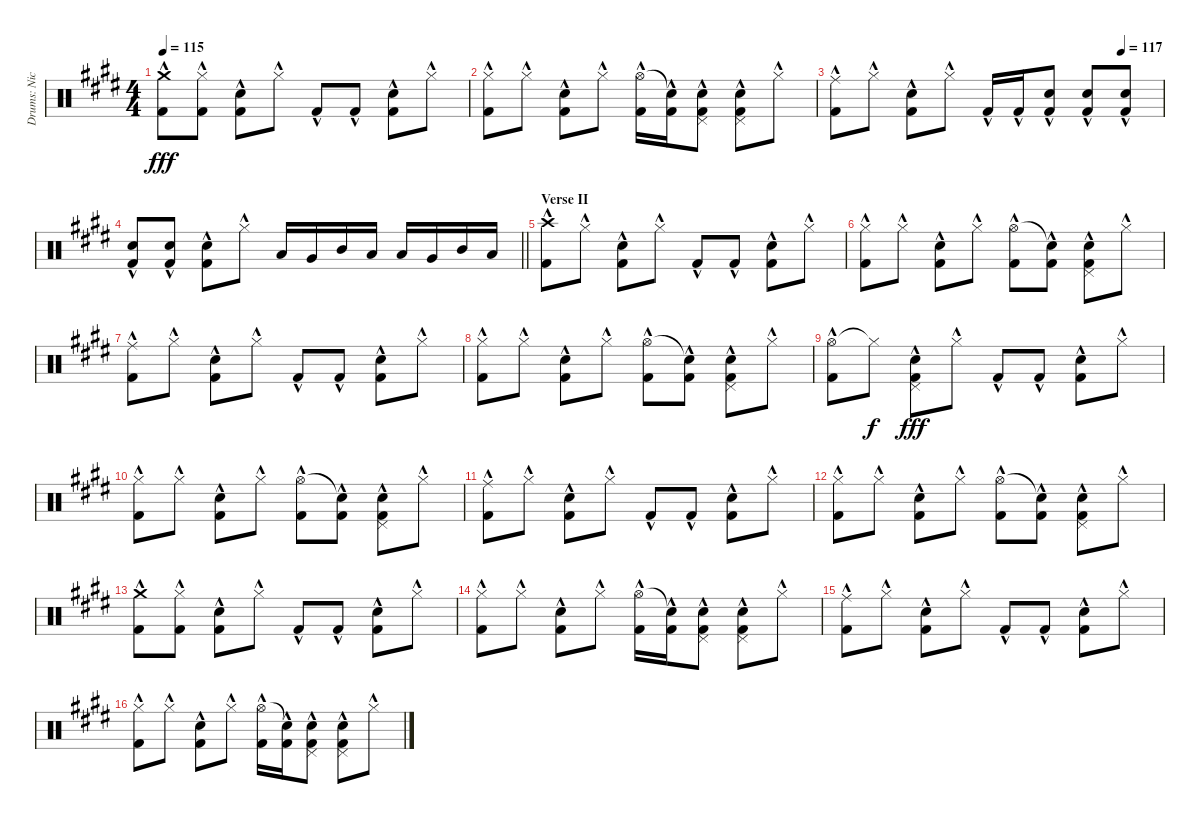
\track ("Drums: Nick" "Drums: Nic") {instrument percussion}
\staff {score}
\articulation defaults
\ts (4 4)
\tempo 115
\clef neutral
\ks e
("Crash medium (hit)"{hac} "Kick (hit) 2"{hac}).8{dy fff} ("Hi-Hat (closed)"{hac} "Kick (hit) 2").8 ("Snare (hit) 2"{hac} "Kick (hit) 2"{hac}).8 "Hi-Hat (closed)"{hac}.8 "Kick (hit) 2"{hac}.8 "Kick (hit) 2"{hac}.8 ("Snare (hit) 2"{hac} "Kick (hit) 2"{hac}).8 "Hi-Hat (closed)"{hac}.8 |
("Hi-Hat (closed)" "Kick (hit) 2"{hac}).8 "Hi-Hat (closed)"{hac}.8 ("Snare (hit) 2"{hac} "Kick (hit) 2"{hac}).8 "Hi-Hat (closed)"{hac}.8 ("Hi-Hat (open)" "Kick (hit) 2"{hac}).16 ("Snare (hit)"{t} "Kick (hit) 2"{hac}).16 ("Pedal Hi-Hat (hit)" "Snare (hit) 2"{hac} "Kick (hit) 2"{hac}).8 ("Pedal Hi-Hat (hit)" "Snare (hit) 2"{hac} "Kick (hit) 2"{hac}).8 "Hi-Hat (closed)"{hac}.8 |
\tempo (117 0.875)
("Ride (middle)" "Kick (hit) 2"{hac}).8 "Hi-Hat (closed)"{hac}.8 ("Snare (hit) 2"{hac} "Kick (hit) 2"{hac}).8 "Hi-Hat (closed)"{hac}.8 "Kick (hit) 2"{hac}.16 "Kick (hit) 2"{hac}.16 ("Snare (hit) 2"{hac} "Kick (hit) 2"{hac}).8 ("Snare (hit) 2"{hac} "Kick (hit) 2"{hac}).8 ("Snare (hit) 2"{hac} "Kick (hit) 2"{hac}).8 |
\barLineRight lightlight
("Snare (hit) 2"{hac} "Kick (hit) 2"{hac}).8 ("Snare (hit) 2"{hac} "Kick (hit) 2"{hac}).8 ("Snare (hit) 2"{hac} "Kick (hit) 2"{hac}).8 "Hi-Hat (closed)"{hac}.8 "Low Tom (hit)".16 "Very Low Tom (hit)".16 "Mid Tom (hit)".16 "Low Tom (hit)".16 "Low Tom (hit)".16 "Very Low Tom (hit)".16 "Mid Tom (hit)".16 "Low Tom (hit)".16 |
\section ("" "Verse II")
("Crash high (hit)"{hac} "Kick (hit) 2"{hac}).8 "Hi-Hat (closed)"{hac}.8 ("Snare (hit) 2"{hac} "Kick (hit) 2"{hac}).8 "Hi-Hat (closed)"{hac}.8 "Kick (hit) 2"{hac}.8 "Kick (hit) 2"{hac}.8 ("Snare (hit) 2"{hac} "Kick (hit) 2"{hac}).8 "Hi-Hat (closed)"{hac}.8 |
("Hi-Hat (closed)" "Kick (hit) 2"{hac}).8 "Hi-Hat (closed)"{hac}.8 ("Snare (hit) 2"{hac} "Kick (hit) 2"{hac}).8 "Hi-Hat (closed)"{hac}.8 ("Hi-Hat (open)" "Kick (hit) 2"{hac}).8 ("Snare (hit)"{t} "Kick (hit) 2"{hac}).8 ("Pedal Hi-Hat (hit)" "Snare (hit) 2"{hac} "Kick (hit) 2"{hac}).8 "Hi-Hat (closed)"{hac}.8 |
("Ride (middle)" "Kick (hit) 2"{hac}).8 "Hi-Hat (closed)"{hac}.8 ("Snare (hit) 2"{hac} "Kick (hit) 2"{hac}).8 "Hi-Hat (closed)"{hac}.8 "Kick (hit) 2"{hac}.8 "Kick (hit) 2"{hac}.8 ("Snare (hit) 2"{hac} "Kick (hit) 2"{hac}).8 "Hi-Hat (closed)"{hac}.8 |
("Hi-Hat (closed)" "Kick (hit) 2"{hac}).8 "Hi-Hat (closed)"{hac}.8 ("Snare (hit) 2"{hac} "Kick (hit) 2"{hac}).8 "Hi-Hat (closed)"{hac}.8 ("Hi-Hat (open)" "Kick (hit) 2"{hac}).8 ("Snare (hit)"{t} "Kick (hit) 2"{hac}).8 ("Pedal Hi-Hat (hit)" "Snare (hit) 2"{hac} "Kick (hit) 2"{hac}).8 "Hi-Hat (closed)"{hac}.8 |
("Hi-Hat (open)" "Kick (hit) 2"{hac}).8 "Hi-Hat (closed)"{t}.8{dy f} ("Pedal Hi-Hat (hit)" "Snare (hit) 2"{hac} "Kick (hit) 2"{hac}).8{dy fff} "Hi-Hat (closed)"{hac}.8 "Kick (hit) 2"{hac}.8 "Kick (hit) 2"{hac}.8 ("Snare (hit) 2"{hac} "Kick (hit) 2"{hac}).8 "Hi-Hat (closed)"{hac}.8 |
("Hi-Hat (closed)" "Kick (hit) 2"{hac}).8 "Hi-Hat (closed)"{hac}.8 ("Snare (hit) 2"{hac} "Kick (hit) 2"{hac}).8 "Hi-Hat (closed)"{hac}.8 ("Hi-Hat (open)" "Kick (hit) 2"{hac}).8 ("Snare (hit)"{t} "Kick (hit) 2"{hac}).8 ("Pedal Hi-Hat (hit)" "Snare (hit) 2"{hac} "Kick (hit) 2"{hac}).8 "Hi-Hat (closed)"{hac}.8 |
("Ride (middle)" "Kick (hit) 2"{hac}).8 "Hi-Hat (closed)"{hac}.8 ("Snare (hit) 2"{hac} "Kick (hit) 2"{hac}).8 "Hi-Hat (closed)"{hac}.8 "Kick (hit) 2"{hac}.8 "Kick (hit) 2"{hac}.8 ("Snare (hit) 2"{hac} "Kick (hit) 2"{hac}).8 "Hi-Hat (closed)"{hac}.8 |
("Hi-Hat (closed)" "Kick (hit) 2"{hac}).8 "Hi-Hat (closed)"{hac}.8 ("Snare (hit) 2"{hac} "Kick (hit) 2"{hac}).8 "Hi-Hat (closed)"{hac}.8 ("Hi-Hat (open)" "Kick (hit) 2"{hac}).8 ("Snare (hit)"{t} "Kick (hit) 2"{hac}).8 ("Pedal Hi-Hat (hit)" "Snare (hit) 2"{hac} "Kick (hit) 2"{hac}).8 "Hi-Hat (closed)"{hac}.8 |
("Crash medium (hit)"{hac} "Kick (hit) 2"{hac}).8 ("Hi-Hat (closed)"{hac} "Kick (hit) 2").8 ("Snare (hit) 2"{hac} "Kick (hit) 2"{hac}).8 "Hi-Hat (closed)"{hac}.8 "Kick (hit) 2"{hac}.8 "Kick (hit) 2"{hac}.8 ("Snare (hit) 2"{hac} "Kick (hit) 2"{hac}).8 "Hi-Hat (closed)"{hac}.8 |
("Hi-Hat (closed)" "Kick (hit) 2"{hac}).8 "Hi-Hat (closed)"{hac}.8 ("Snare (hit) 2"{hac} "Kick (hit) 2"{hac}).8 "Hi-Hat (closed)"{hac}.8 ("Hi-Hat (open)" "Kick (hit) 2"{hac}).16 ("Snare (hit)"{t} "Kick (hit) 2"{hac}).16 ("Pedal Hi-Hat (hit)" "Snare (hit) 2"{hac} "Kick (hit) 2"{hac}).8 ("Pedal Hi-Hat (hit)" "Snare (hit) 2"{hac} "Kick (hit) 2"{hac}).8 "Hi-Hat (closed)"{hac}.8 |
("Ride (middle)" "Kick (hit) 2"{hac}).8 "Hi-Hat (closed)"{hac}.8 ("Snare (hit) 2"{hac} "Kick (hit) 2"{hac}).8 "Hi-Hat (closed)"{hac}.8 "Kick (hit) 2"{hac}.8 "Kick (hit) 2"{hac}.8 ("Snare (hit) 2"{hac} "Kick (hit) 2"{hac}).8 "Hi-Hat (closed)"{hac}.8 |
("Hi-Hat (closed)" "Kick (hit) 2"{hac}).8 "Hi-Hat (closed)"{hac}.8 ("Snare (hit) 2"{hac} "Kick (hit) 2"{hac}).8 "Hi-Hat (closed)"{hac}.8 ("Hi-Hat (open)" "Kick (hit) 2"{hac}).16 ("Snare (hit)"{t} "Kick (hit) 2"{hac}).16 ("Pedal Hi-Hat (hit)" "Snare (hit) 2"{hac} "Kick (hit) 2"{hac}).8 ("Pedal Hi-Hat (hit)" "Snare (hit) 2"{hac} "Kick (hit) 2"{hac}).8 "Hi-Hat (closed)"{hac}.8
